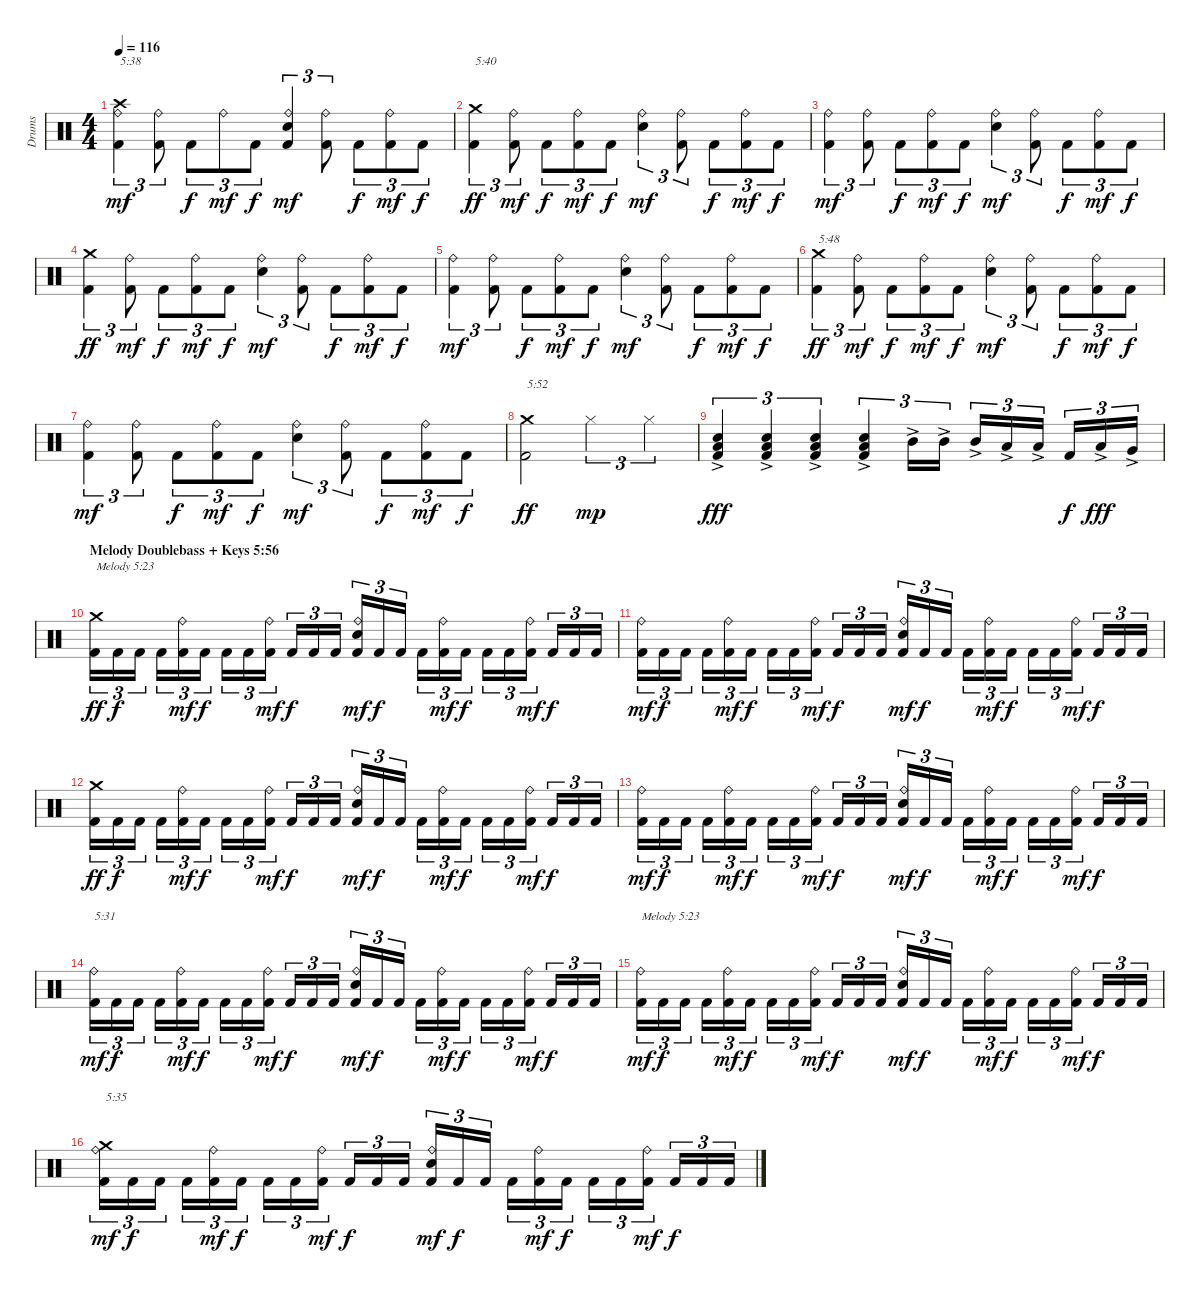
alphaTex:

\track ("Drums" "Drums") {instrument percussion}
\staff {score}
\articulation defaults
\ts (4 4)
\tempo 116
\clef neutral
\ks c
("Kick (hit) 2" "Ride (bell)" "Crash high (hit)").4{tu (3 2) txt "5:38" dy mf} ("Kick (hit) 2" "Ride (bell)").8{tu (3 2)} "Kick (hit) 2".8{tu (3 2) dy f} "Ride (bell)".8{tu (3 2) dy mf} "Kick (hit) 2".8{tu (3 2) dy f} ("Kick (hit) 2" "Electric Snare (hit)" "Ride (bell)").4{tu (3 2) dy mf} ("Kick (hit) 2" "Ride (bell)").8{tu (3 2)} "Kick (hit) 2".8{tu (3 2) dy f} ("Kick (hit) 2" "Ride (bell)").8{tu (3 2) dy mf} "Kick (hit) 2".8{tu (3 2) dy f} |
("Kick (hit) 2" "Crash medium (hit)").4{tu (3 2) txt "5:40" dy ff} ("Kick (hit) 2" "Ride (bell)").8{tu (3 2) dy mf} "Kick (hit) 2".8{tu (3 2) dy f} ("Kick (hit) 2" "Ride (bell)").8{tu (3 2) dy mf} "Kick (hit) 2".8{tu (3 2) dy f} ("Electric Snare (hit)" "Ride (bell)").4{tu (3 2) dy mf} ("Kick (hit) 2" "Ride (bell)").8{tu (3 2)} "Kick (hit) 2".8{tu (3 2) dy f} ("Kick (hit) 2" "Ride (bell)").8{tu (3 2) dy mf} "Kick (hit) 2".8{tu (3 2) dy f} |
("Kick (hit) 2" "Ride (bell)").4{tu (3 2) dy mf} ("Kick (hit) 2" "Ride (bell)").8{tu (3 2)} "Kick (hit) 2".8{tu (3 2) dy f} ("Kick (hit) 2" "Ride (bell)").8{tu (3 2) dy mf} "Kick (hit) 2".8{tu (3 2) dy f} ("Electric Snare (hit)" "Ride (bell)").4{tu (3 2) dy mf} ("Kick (hit) 2" "Ride (bell)").8{tu (3 2)} "Kick (hit) 2".8{tu (3 2) dy f} ("Kick (hit) 2" "Ride (bell)").8{tu (3 2) dy mf} "Kick (hit) 2".8{tu (3 2) dy f} |
("Kick (hit) 2" "Crash medium (hit)").4{tu (3 2) dy ff} ("Kick (hit) 2" "Ride (bell)").8{tu (3 2) dy mf} "Kick (hit) 2".8{tu (3 2) dy f} ("Kick (hit) 2" "Ride (bell)").8{tu (3 2) dy mf} "Kick (hit) 2".8{tu (3 2) dy f} ("Electric Snare (hit)" "Ride (bell)").4{tu (3 2) dy mf} ("Kick (hit) 2" "Ride (bell)").8{tu (3 2)} "Kick (hit) 2".8{tu (3 2) dy f} ("Kick (hit) 2" "Ride (bell)").8{tu (3 2) dy mf} "Kick (hit) 2".8{tu (3 2) dy f} |
("Kick (hit) 2" "Ride (bell)").4{tu (3 2) dy mf} ("Kick (hit) 2" "Ride (bell)").8{tu (3 2)} "Kick (hit) 2".8{tu (3 2) dy f} ("Kick (hit) 2" "Ride (bell)").8{tu (3 2) dy mf} "Kick (hit) 2".8{tu (3 2) dy f} ("Electric Snare (hit)" "Ride (bell)").4{tu (3 2) dy mf} ("Kick (hit) 2" "Ride (bell)").8{tu (3 2)} "Kick (hit) 2".8{tu (3 2) dy f} ("Kick (hit) 2" "Ride (bell)").8{tu (3 2) dy mf} "Kick (hit) 2".8{tu (3 2) dy f} |
("Kick (hit) 2" "Crash medium (hit)").4{tu (3 2) txt "5:48" dy ff} ("Kick (hit) 2" "Ride (bell)").8{tu (3 2) dy mf} "Kick (hit) 2".8{tu (3 2) dy f} ("Kick (hit) 2" "Ride (bell)").8{tu (3 2) dy mf} "Kick (hit) 2".8{tu (3 2) dy f} ("Electric Snare (hit)" "Ride (bell)").4{tu (3 2) dy mf} ("Kick (hit) 2" "Ride (bell)").8{tu (3 2)} "Kick (hit) 2".8{tu (3 2) dy f} ("Kick (hit) 2" "Ride (bell)").8{tu (3 2) dy mf} "Kick (hit) 2".8{tu (3 2) dy f} |
("Kick (hit) 2" "Ride (bell)").4{tu (3 2) dy mf} ("Kick (hit) 2" "Ride (bell)").8{tu (3 2)} "Kick (hit) 2".8{tu (3 2) dy f} ("Kick (hit) 2" "Ride (bell)").8{tu (3 2) dy mf} "Kick (hit) 2".8{tu (3 2) dy f} ("Electric Snare (hit)" "Ride (bell)").4{tu (3 2) dy mf} ("Kick (hit) 2" "Ride (bell)").8{tu (3 2)} "Kick (hit) 2".8{tu (3 2) dy f} ("Kick (hit) 2" "Ride (bell)").8{tu (3 2) dy mf} "Kick (hit) 2".8{tu (3 2) dy f} |
("Kick (hit) 2" "Crash medium (hit)").2{txt "5:52" dy ff} "Hi-Hat (closed)".2{tu (3 2) dy mp} "Hi-Hat (closed)".4{tu (3 2)} |
("Kick (hit) 2" "Low Tom (hit)"{ac} "Electric Snare (hit)").4{tu (3 2) dy fff} ("Kick (hit) 2" "Low Tom (hit)"{ac} "Electric Snare (hit)").4{tu (3 2)} ("Kick (hit) 2" "Low Tom (hit)"{ac} "Electric Snare (hit)").4{tu (3 2)} ("Kick (hit) 2" "Low Tom (hit)"{ac} "Electric Snare (hit)").4{tu (3 2)} "Mid Tom (hit)"{ac}.16{tu (3 2)} "Mid Tom (hit)"{ac}.16{tu (3 2)} "Mid Tom (hit)"{ac}.16{tu (3 2)} "Low Tom (hit)"{ac}.16{tu (3 2)} "Low Tom (hit)"{ac}.16{tu (3 2)} "Kick (hit) 2".16{tu (3 2) dy f} "Low Tom (hit)"{ac}.16{tu (3 2) dy fff} "Very Low Tom (hit)"{ac}.16{tu (3 2)} |
\section ("" "Melody Doublebass + Keys 5:56")
("Kick (hit) 2" "Crash medium (hit)").16{tu (3 2) txt "Melody 5:23" dy ff} "Kick (hit) 2".16{tu (3 2) dy f} "Kick (hit) 2".16{tu (3 2)} "Kick (hit) 2".16{tu (3 2)} ("Kick (hit) 2" "Ride (bell)").16{tu (3 2) dy mf} "Kick (hit) 2".16{tu (3 2) dy f} "Kick (hit) 2".16{tu (3 2)} "Kick (hit) 2".16{tu (3 2)} ("Kick (hit) 2" "Ride (bell)").16{tu (3 2) dy mf} "Kick (hit) 2".16{tu (3 2) dy f} "Kick (hit) 2".16{tu (3 2)} "Kick (hit) 2".16{tu (3 2)} ("Kick (hit) 2" "Electric Snare (hit)" "Ride (bell)").16{tu (3 2) dy mf} "Kick (hit) 2".16{tu (3 2) dy f} "Kick (hit) 2".16{tu (3 2)} "Kick (hit) 2".16{tu (3 2)} ("Kick (hit) 2" "Ride (bell)").16{tu (3 2) dy mf} "Kick (hit) 2".16{tu (3 2) dy f} "Kick (hit) 2".16{tu (3 2)} "Kick (hit) 2".16{tu (3 2)} ("Kick (hit) 2" "Ride (bell)").16{tu (3 2) dy mf} "Kick (hit) 2".16{tu (3 2) dy f} "Kick (hit) 2".16{tu (3 2)} "Kick (hit) 2".16{tu (3 2)} |
("Kick (hit) 2" "Ride (bell)").16{tu (3 2) dy mf} "Kick (hit) 2".16{tu (3 2) dy f} "Kick (hit) 2".16{tu (3 2)} "Kick (hit) 2".16{tu (3 2)} ("Kick (hit) 2" "Ride (bell)").16{tu (3 2) dy mf} "Kick (hit) 2".16{tu (3 2) dy f} "Kick (hit) 2".16{tu (3 2)} "Kick (hit) 2".16{tu (3 2)} ("Kick (hit) 2" "Ride (bell)").16{tu (3 2) dy mf} "Kick (hit) 2".16{tu (3 2) dy f} "Kick (hit) 2".16{tu (3 2)} "Kick (hit) 2".16{tu (3 2)} ("Kick (hit) 2" "Electric Snare (hit)" "Ride (bell)").16{tu (3 2) dy mf} "Kick (hit) 2".16{tu (3 2) dy f} "Kick (hit) 2".16{tu (3 2)} "Kick (hit) 2".16{tu (3 2)} ("Kick (hit) 2" "Ride (bell)").16{tu (3 2) dy mf} "Kick (hit) 2".16{tu (3 2) dy f} "Kick (hit) 2".16{tu (3 2)} "Kick (hit) 2".16{tu (3 2)} ("Kick (hit) 2" "Ride (bell)").16{tu (3 2) dy mf} "Kick (hit) 2".16{tu (3 2) dy f} "Kick (hit) 2".16{tu (3 2)} "Kick (hit) 2".16{tu (3 2)} |
("Kick (hit) 2" "Crash medium (hit)").16{tu (3 2) dy ff} "Kick (hit) 2".16{tu (3 2) dy f} "Kick (hit) 2".16{tu (3 2)} "Kick (hit) 2".16{tu (3 2)} ("Kick (hit) 2" "Ride (bell)").16{tu (3 2) dy mf} "Kick (hit) 2".16{tu (3 2) dy f} "Kick (hit) 2".16{tu (3 2)} "Kick (hit) 2".16{tu (3 2)} ("Kick (hit) 2" "Ride (bell)").16{tu (3 2) dy mf} "Kick (hit) 2".16{tu (3 2) dy f} "Kick (hit) 2".16{tu (3 2)} "Kick (hit) 2".16{tu (3 2)} ("Kick (hit) 2" "Electric Snare (hit)" "Ride (bell)").16{tu (3 2) dy mf} "Kick (hit) 2".16{tu (3 2) dy f} "Kick (hit) 2".16{tu (3 2)} "Kick (hit) 2".16{tu (3 2)} ("Kick (hit) 2" "Ride (bell)").16{tu (3 2) dy mf} "Kick (hit) 2".16{tu (3 2) dy f} "Kick (hit) 2".16{tu (3 2)} "Kick (hit) 2".16{tu (3 2)} ("Kick (hit) 2" "Ride (bell)").16{tu (3 2) dy mf} "Kick (hit) 2".16{tu (3 2) dy f} "Kick (hit) 2".16{tu (3 2)} "Kick (hit) 2".16{tu (3 2)} |
("Kick (hit) 2" "Ride (bell)").16{tu (3 2) dy mf} "Kick (hit) 2".16{tu (3 2) dy f} "Kick (hit) 2".16{tu (3 2)} "Kick (hit) 2".16{tu (3 2)} ("Kick (hit) 2" "Ride (bell)").16{tu (3 2) dy mf} "Kick (hit) 2".16{tu (3 2) dy f} "Kick (hit) 2".16{tu (3 2)} "Kick (hit) 2".16{tu (3 2)} ("Kick (hit) 2" "Ride (bell)").16{tu (3 2) dy mf} "Kick (hit) 2".16{tu (3 2) dy f} "Kick (hit) 2".16{tu (3 2)} "Kick (hit) 2".16{tu (3 2)} ("Kick (hit) 2" "Electric Snare (hit)" "Ride (bell)").16{tu (3 2) dy mf} "Kick (hit) 2".16{tu (3 2) dy f} "Kick (hit) 2".16{tu (3 2)} "Kick (hit) 2".16{tu (3 2)} ("Kick (hit) 2" "Ride (bell)").16{tu (3 2) dy mf} "Kick (hit) 2".16{tu (3 2) dy f} "Kick (hit) 2".16{tu (3 2)} "Kick (hit) 2".16{tu (3 2)} ("Kick (hit) 2" "Ride (bell)").16{tu (3 2) dy mf} "Kick (hit) 2".16{tu (3 2) dy f} "Kick (hit) 2".16{tu (3 2)} "Kick (hit) 2".16{tu (3 2)} |
("Kick (hit) 2" "Ride (bell)").16{tu (3 2) txt "5:31" dy mf} "Kick (hit) 2".16{tu (3 2) dy f} "Kick (hit) 2".16{tu (3 2)} "Kick (hit) 2".16{tu (3 2)} ("Kick (hit) 2" "Ride (bell)").16{tu (3 2) dy mf} "Kick (hit) 2".16{tu (3 2) dy f} "Kick (hit) 2".16{tu (3 2)} "Kick (hit) 2".16{tu (3 2)} ("Kick (hit) 2" "Ride (bell)").16{tu (3 2) dy mf} "Kick (hit) 2".16{tu (3 2) dy f} "Kick (hit) 2".16{tu (3 2)} "Kick (hit) 2".16{tu (3 2)} ("Kick (hit) 2" "Electric Snare (hit)" "Ride (bell)").16{tu (3 2) dy mf} "Kick (hit) 2".16{tu (3 2) dy f} "Kick (hit) 2".16{tu (3 2)} "Kick (hit) 2".16{tu (3 2)} ("Kick (hit) 2" "Ride (bell)").16{tu (3 2) dy mf} "Kick (hit) 2".16{tu (3 2) dy f} "Kick (hit) 2".16{tu (3 2)} "Kick (hit) 2".16{tu (3 2)} ("Kick (hit) 2" "Ride (bell)").16{tu (3 2) dy mf} "Kick (hit) 2".16{tu (3 2) dy f} "Kick (hit) 2".16{tu (3 2)} "Kick (hit) 2".16{tu (3 2)} |
("Kick (hit) 2" "Ride (bell)").16{tu (3 2) txt "Melody 5:23" dy mf} "Kick (hit) 2".16{tu (3 2) dy f} "Kick (hit) 2".16{tu (3 2)} "Kick (hit) 2".16{tu (3 2)} ("Kick (hit) 2" "Ride (bell)").16{tu (3 2) dy mf} "Kick (hit) 2".16{tu (3 2) dy f} "Kick (hit) 2".16{tu (3 2)} "Kick (hit) 2".16{tu (3 2)} ("Kick (hit) 2" "Ride (bell)").16{tu (3 2) dy mf} "Kick (hit) 2".16{tu (3 2) dy f} "Kick (hit) 2".16{tu (3 2)} "Kick (hit) 2".16{tu (3 2)} ("Kick (hit) 2" "Electric Snare (hit)" "Ride (bell)").16{tu (3 2) dy mf} "Kick (hit) 2".16{tu (3 2) dy f} "Kick (hit) 2".16{tu (3 2)} "Kick (hit) 2".16{tu (3 2)} ("Kick (hit) 2" "Ride (bell)").16{tu (3 2) dy mf} "Kick (hit) 2".16{tu (3 2) dy f} "Kick (hit) 2".16{tu (3 2)} "Kick (hit) 2".16{tu (3 2)} ("Kick (hit) 2" "Ride (bell)").16{tu (3 2) dy mf} "Kick (hit) 2".16{tu (3 2) dy f} "Kick (hit) 2".16{tu (3 2)} "Kick (hit) 2".16{tu (3 2)} |
("Kick (hit) 2" "Ride (bell)" "Crash medium (hit)").16{tu (3 2) txt "5:35" dy mf} "Kick (hit) 2".16{tu (3 2) dy f} "Kick (hit) 2".16{tu (3 2)} "Kick (hit) 2".16{tu (3 2)} ("Kick (hit) 2" "Ride (bell)").16{tu (3 2) dy mf} "Kick (hit) 2".16{tu (3 2) dy f} "Kick (hit) 2".16{tu (3 2)} "Kick (hit) 2".16{tu (3 2)} ("Kick (hit) 2" "Ride (bell)").16{tu (3 2) dy mf} "Kick (hit) 2".16{tu (3 2) dy f} "Kick (hit) 2".16{tu (3 2)} "Kick (hit) 2".16{tu (3 2)} ("Kick (hit) 2" "Electric Snare (hit)" "Ride (bell)").16{tu (3 2) dy mf} "Kick (hit) 2".16{tu (3 2) dy f} "Kick (hit) 2".16{tu (3 2)} "Kick (hit) 2".16{tu (3 2)} ("Kick (hit) 2" "Ride (bell)").16{tu (3 2) dy mf} "Kick (hit) 2".16{tu (3 2) dy f} "Kick (hit) 2".16{tu (3 2)} "Kick (hit) 2".16{tu (3 2)} ("Kick (hit) 2" "Ride (bell)").16{tu (3 2) dy mf} "Kick (hit) 2".16{tu (3 2) dy f} "Kick (hit) 2".16{tu (3 2)} "Kick (hit) 2".16{tu (3 2)}
